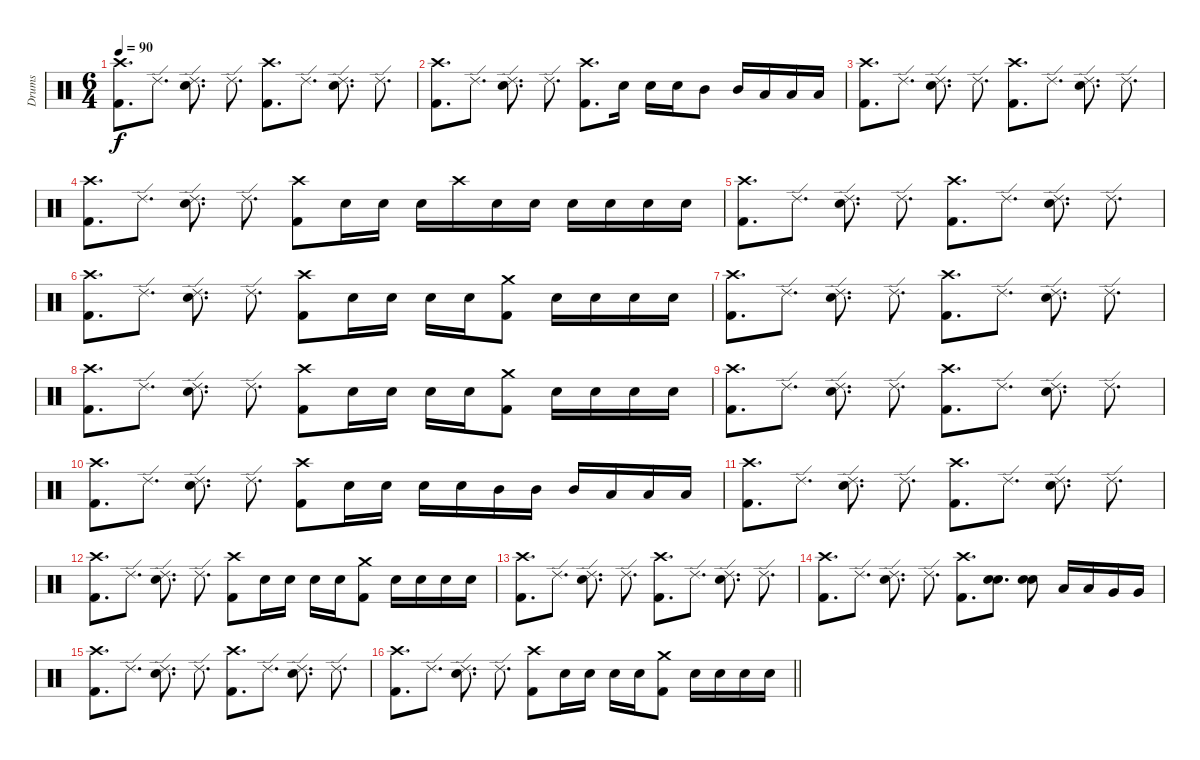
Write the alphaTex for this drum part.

\track ("Drums" "Drums") {instrument percussion}
\staff {score}
\articulation defaults
\ts (6 4)
\tempo 90
\clef neutral
\ks c
("Crash high (hit)" "Kick (hit) 2").8{d dy f} "Ride (edge) 2".8{d} ("Ride (edge) 2" "Electric Snare (hit)").8{d} "Ride (edge) 2".8{d} ("Crash high (hit)" "Kick (hit) 2").8{d} "Ride (edge) 2".8{d} ("Ride (edge) 2" "Electric Snare (hit)").8{d} "Ride (edge) 2".8{d} |
("Crash high (hit)" "Kick (hit) 2").8{d} "Ride (edge) 2".8{d} ("Ride (edge) 2" "Electric Snare (hit)").8{d} "Ride (edge) 2".8{d} ("Crash high (hit)" "Kick (hit) 2").8{d} "Electric Snare (hit)".16 "Electric Snare (hit)".16 "Electric Snare (hit)".16 "Mid Tom (hit)".8 "Mid Tom (hit)".16 "Low Tom (hit)".16 "Low Tom (hit)".16 "Low Tom (hit)".16 |
("Crash high (hit)" "Kick (hit) 2").8{d} "Ride (edge) 2".8{d} ("Ride (edge) 2" "Electric Snare (hit)").8{d} "Ride (edge) 2".8{d} ("Crash high (hit)" "Kick (hit) 2").8{d} "Ride (edge) 2".8{d} ("Ride (edge) 2" "Electric Snare (hit)").8{d} "Ride (edge) 2".8{d} |
("Crash high (hit)" "Kick (hit) 2").8{d} "Ride (edge) 2".8{d} ("Ride (edge) 2" "Electric Snare (hit)").8{d} "Ride (edge) 2".8{d} ("Crash high (hit)" "Kick (hit) 2").8 "Electric Snare (hit)".16 "Electric Snare (hit)".16 "Electric Snare (hit)".16 "Crash high (hit)".16 "Electric Snare (hit)".16 "Electric Snare (hit)".16 "Electric Snare (hit)".16 "Electric Snare (hit)".16 "Electric Snare (hit)".16 "Electric Snare (hit)".16 |
("Crash high (hit)" "Kick (hit) 2").8{d} "Ride (edge) 2".8{d} ("Ride (edge) 2" "Electric Snare (hit)").8{d} "Ride (edge) 2".8{d} ("Crash high (hit)" "Kick (hit) 2").8{d} "Ride (edge) 2".8{d} ("Ride (edge) 2" "Electric Snare (hit)").8{d} "Ride (edge) 2".8{d} |
("Crash high (hit)" "Kick (hit) 2").8{d} "Ride (edge) 2".8{d} ("Ride (edge) 2" "Electric Snare (hit)").8{d} "Ride (edge) 2".8{d} ("Crash high (hit)" "Kick (hit) 2").8 "Electric Snare (hit)".16 "Electric Snare (hit)".16 "Electric Snare (hit)".16 "Electric Snare (hit)".16 ("Crash medium (hit)" "Kick (hit) 2").8 "Electric Snare (hit)".16 "Electric Snare (hit)".16 "Electric Snare (hit)".16 "Electric Snare (hit)".16 |
("Crash high (hit)" "Kick (hit) 2").8{d} "Ride (edge) 2".8{d} ("Ride (edge) 2" "Electric Snare (hit)").8{d} "Ride (edge) 2".8{d} ("Crash high (hit)" "Kick (hit) 2").8{d} "Ride (edge) 2".8{d} ("Ride (edge) 2" "Electric Snare (hit)").8{d} "Ride (edge) 2".8{d} |
("Crash high (hit)" "Kick (hit) 2").8{d} "Ride (edge) 2".8{d} ("Ride (edge) 2" "Electric Snare (hit)").8{d} "Ride (edge) 2".8{d} ("Crash high (hit)" "Kick (hit) 2").8 "Electric Snare (hit)".16 "Electric Snare (hit)".16 "Electric Snare (hit)".16 "Electric Snare (hit)".16 ("Crash medium (hit)" "Kick (hit) 2").8 "Electric Snare (hit)".16 "Electric Snare (hit)".16 "Electric Snare (hit)".16 "Electric Snare (hit)".16 |
("Crash high (hit)" "Kick (hit) 2").8{d} "Ride (edge) 2".8{d} ("Ride (edge) 2" "Electric Snare (hit)").8{d} "Ride (edge) 2".8{d} ("Crash high (hit)" "Kick (hit) 2").8{d} "Ride (edge) 2".8{d} ("Ride (edge) 2" "Electric Snare (hit)").8{d} "Ride (edge) 2".8{d} |
("Crash high (hit)" "Kick (hit) 2").8{d} "Ride (edge) 2".8{d} ("Ride (edge) 2" "Electric Snare (hit)").8{d} "Ride (edge) 2".8{d} ("Crash high (hit)" "Kick (hit) 2").8 "Electric Snare (hit)".16 "Electric Snare (hit)".16 "Electric Snare (hit)".16 "Electric Snare (hit)".16 "Mid Tom (hit)".16 "Mid Tom (hit)".16 "Mid Tom (hit)".16 "Low Tom (hit)".16 "Low Tom (hit)".16 "Low Tom (hit)".16 |
("Crash high (hit)" "Kick (hit) 2").8{d} "Ride (edge) 2".8{d} ("Ride (edge) 2" "Electric Snare (hit)").8{d} "Ride (edge) 2".8{d} ("Crash high (hit)" "Kick (hit) 2").8{d} "Ride (edge) 2".8{d} ("Ride (edge) 2" "Electric Snare (hit)").8{d} "Ride (edge) 2".8{d} |
("Crash high (hit)" "Kick (hit) 2").8{d} "Ride (edge) 2".8{d} ("Ride (edge) 2" "Electric Snare (hit)").8{d} "Ride (edge) 2".8{d} ("Crash high (hit)" "Kick (hit) 2").8 "Electric Snare (hit)".16 "Electric Snare (hit)".16 "Electric Snare (hit)".16 "Electric Snare (hit)".16 ("Crash medium (hit)" "Kick (hit) 2").8 "Electric Snare (hit)".16 "Electric Snare (hit)".16 "Electric Snare (hit)".16 "Electric Snare (hit)".16 |
("Crash high (hit)" "Kick (hit) 2").8{d} "Ride (edge) 2".8{d} ("Ride (edge) 2" "Electric Snare (hit)").8{d} "Ride (edge) 2".8{d} ("Crash high (hit)" "Kick (hit) 2").8{d} "Ride (edge) 2".8{d} ("Ride (edge) 2" "Electric Snare (hit)").8{d} "Ride (edge) 2".8{d} |
("Crash high (hit)" "Kick (hit) 2").8{d} "Ride (edge) 2".8{d} ("Ride (edge) 2" "Electric Snare (hit)").8{d} "Ride (edge) 2".8{d} ("Crash high (hit)" "Kick (hit) 2").8{d} ("Electric Snare (hit)" "Electric Snare (hit)").8{d bu 60} ("Electric Snare (hit)" "Electric Snare (hit)").8{bu 60} "Low Tom (hit)".16 "Low Tom (hit)".16 "Very Low Tom (hit)".16 "Very Low Tom (hit)".16 |
("Crash high (hit)" "Kick (hit) 2").8{d} "Ride (edge) 2".8{d} ("Ride (edge) 2" "Electric Snare (hit)").8{d} "Ride (edge) 2".8{d} ("Crash high (hit)" "Kick (hit) 2").8{d} "Ride (edge) 2".8{d} ("Ride (edge) 2" "Electric Snare (hit)").8{d} "Ride (edge) 2".8{d} |
\barLineRight lightlight
("Crash high (hit)" "Kick (hit) 2").8{d} "Ride (edge) 2".8{d} ("Ride (edge) 2" "Electric Snare (hit)").8{d} "Ride (edge) 2".8{d} ("Crash high (hit)" "Kick (hit) 2").8 "Electric Snare (hit)".16 "Electric Snare (hit)".16 "Electric Snare (hit)".16 "Electric Snare (hit)".16 ("Crash medium (hit)" "Kick (hit) 2").8 "Electric Snare (hit)".16 "Electric Snare (hit)".16 "Electric Snare (hit)".16 "Electric Snare (hit)".16
